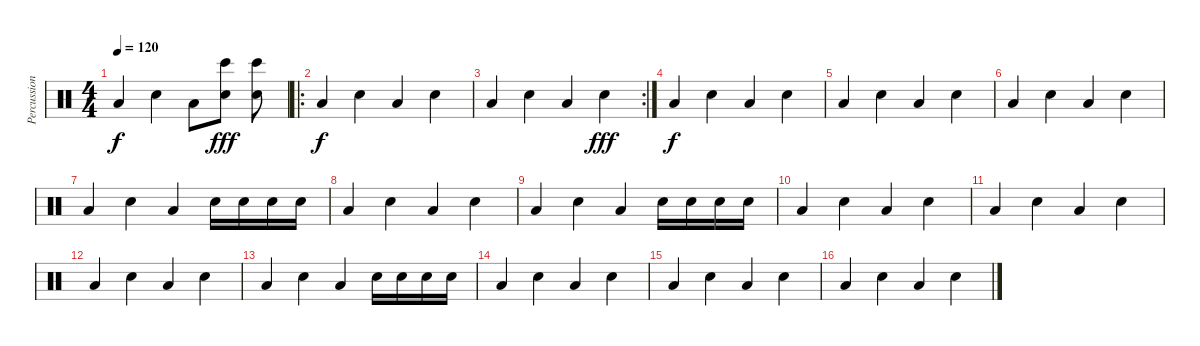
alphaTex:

\track ("Percussion" "Percussion") {instrument percussion}
\staff {score}
\articulation defaults
\ts (4 4)
\tempo 120
\clef neutral
\ks c "Low Floor Tom (hit)".4{dy f} "Electric Snare (hit)".4 "Low Floor Tom (hit)".8
("Bongo High (hit)" "Snare (hit) 2").8{dy fff} ("Bongo High (hit)" "Snare (hit) 2").8 |
\ro "Low Floor Tom (hit)".4{dy f} "Electric Snare (hit)".4 "Low Floor Tom (hit)".4 "Electric Snare (hit)".4
|
\rc 2 "Low Floor Tom (hit)".4 "Electric Snare (hit)".4 "Low Floor Tom (hit)".4 "Electric Snare (hit)".4{dy fff}
|
"Low Floor Tom (hit)".4{dy f} "Electric Snare (hit)".4 "Low Floor Tom (hit)".4 "Electric Snare (hit)".4 |
"Low Floor Tom (hit)".4 "Electric Snare (hit)".4 "Low Floor Tom (hit)".4 "Electric Snare (hit)".4 |
"Low Floor Tom (hit)".4 "Electric Snare (hit)".4 "Low Floor Tom (hit)".4 "Electric Snare (hit)".4 |
"Low Floor Tom (hit)".4 "Electric Snare (hit)".4 "Low Floor Tom (hit)".4 "Electric Snare (hit)".16 "Electric Snare (hit)".16 "Electric Snare (hit)".16 "Electric Snare (hit)".16 |
"Low Floor Tom (hit)".4 "Electric Snare (hit)".4 "Low Floor Tom (hit)".4 "Electric Snare (hit)".4 |
"Low Floor Tom (hit)".4 "Electric Snare (hit)".4 "Low Floor Tom (hit)".4 "Electric Snare (hit)".16 "Electric Snare (hit)".16 "Electric Snare (hit)".16 "Electric Snare (hit)".16 |
"Low Floor Tom (hit)".4 "Electric Snare (hit)".4 "Low Floor Tom (hit)".4 "Electric Snare (hit)".4 |
"Low Floor Tom (hit)".4 "Electric Snare (hit)".4 "Low Floor Tom (hit)".4 "Electric Snare (hit)".4 |
"Low Floor Tom (hit)".4 "Electric Snare (hit)".4 "Low Floor Tom (hit)".4 "Electric Snare (hit)".4 |
"Low Floor Tom (hit)".4 "Electric Snare (hit)".4 "Low Floor Tom (hit)".4 "Electric Snare (hit)".16 "Electric Snare (hit)".16 "Electric Snare (hit)".16 "Electric Snare (hit)".16 |
"Low Floor Tom (hit)".4 "Electric Snare (hit)".4 "Low Floor Tom (hit)".4 "Electric Snare (hit)".4 |
"Low Floor Tom (hit)".4 "Electric Snare (hit)".4 "Low Floor Tom (hit)".4 "Electric Snare (hit)".4 |
"Low Floor Tom (hit)".4 "Electric Snare (hit)".4 "Low Floor Tom (hit)".4 "Electric Snare (hit)".4
